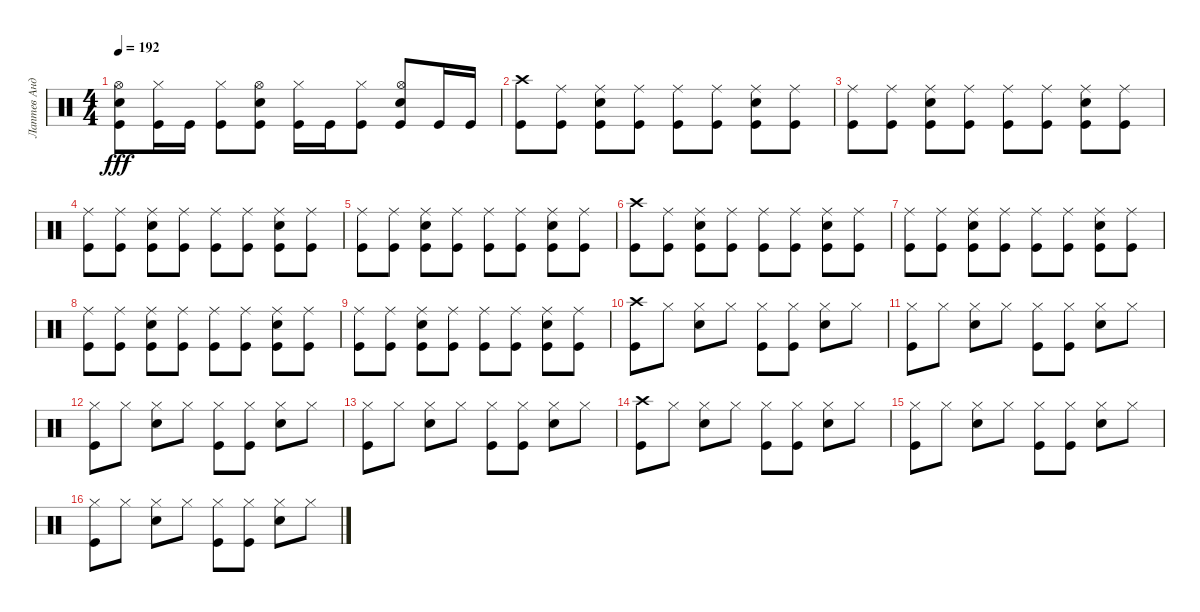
\track ("Лаптев Андрей" "Лаптев Анд") {instrument percussion}
\staff {score}
\articulation defaults
\ts (4 4)
\tempo 192
\clef neutral
\ks c
("Kick (hit)" "Hi-Hat (open)" "Electric Snare (hit)").8{dy fff} ("Kick (hit)" "Hi-Hat (closed)").16 "Kick (hit)".16 ("Kick (hit)" "Hi-Hat (closed)").8 ("Kick (hit)" "Hi-Hat (open)" "Electric Snare (hit)").8 ("Hi-Hat (closed)" "Kick (hit)").16 "Kick (hit)".16 ("Kick (hit)" "Hi-Hat (closed)").8 ("Kick (hit)" "Hi-Hat (open)" "Electric Snare (hit)").8 "Kick (hit)".16 "Kick (hit)".16 |
("Crash high (hit)" "Kick (hit)").8 ("Kick (hit)" "Ride (middle)").8 ("Kick (hit)" "Ride (middle)" "Electric Snare (hit)").8 ("Kick (hit)" "Ride (middle)").8 ("Ride (middle)" "Kick (hit)").8 ("Ride (middle)" "Kick (hit)").8 ("Electric Snare (hit)" "Kick (hit)" "Ride (middle)").8 ("Kick (hit)" "Ride (middle)").8 |
("Kick (hit)" "Ride (middle)").8 ("Kick (hit)" "Ride (middle)").8 ("Kick (hit)" "Ride (middle)" "Electric Snare (hit)").8 ("Kick (hit)" "Ride (middle)").8 ("Ride (middle)" "Kick (hit)").8 ("Kick (hit)" "Ride (middle)").8 ("Ride (middle)" "Kick (hit)" "Electric Snare (hit)").8 ("Ride (middle)" "Kick (hit)").8 |
("Kick (hit)" "Ride (middle)").8 ("Kick (hit)" "Ride (middle)").8 ("Electric Snare (hit)" "Kick (hit)" "Ride (middle)").8 ("Ride (middle)" "Kick (hit)").8 ("Ride (middle)" "Kick (hit)").8 ("Kick (hit)" "Ride (middle)").8 ("Electric Snare (hit)" "Ride (middle)" "Kick (hit)").8 ("Ride (middle)" "Kick (hit)").8 |
("Kick (hit)" "Ride (middle)").8 ("Kick (hit)" "Ride (middle)").8 ("Electric Snare (hit)" "Kick (hit)" "Ride (middle)").8 ("Kick (hit)" "Ride (middle)").8 ("Kick (hit)" "Ride (middle)").8 ("Ride (middle)" "Kick (hit)").8 ("Electric Snare (hit)" "Ride (middle)" "Kick (hit)").8 ("Kick (hit)" "Ride (middle)").8 |
("Kick (hit)" "Crash high (hit)").8 ("Kick (hit)" "Ride (middle)").8 ("Kick (hit)" "Ride (middle)" "Electric Snare (hit)").8 ("Ride (middle)" "Kick (hit)").8 ("Kick (hit)" "Ride (middle)").8 ("Kick (hit)" "Ride (middle)").8 ("Kick (hit)" "Ride (middle)" "Electric Snare (hit)").8 ("Kick (hit)" "Ride (middle)").8 |
("Kick (hit)" "Ride (middle)").8 ("Kick (hit)" "Ride (middle)").8 ("Ride (middle)" "Electric Snare (hit)" "Kick (hit)").8 ("Kick (hit)" "Ride (middle)").8 ("Ride (middle)" "Kick (hit)").8 ("Kick (hit)" "Ride (middle)").8 ("Ride (middle)" "Electric Snare (hit)" "Kick (hit)").8 ("Ride (middle)" "Kick (hit)").8 |
("Ride (middle)" "Kick (hit)").8 ("Ride (middle)" "Kick (hit)").8 ("Kick (hit)" "Electric Snare (hit)" "Ride (middle)").8 ("Ride (middle)" "Kick (hit)").8 ("Ride (middle)" "Kick (hit)").8 ("Kick (hit)" "Ride (middle)").8 ("Electric Snare (hit)" "Ride (middle)" "Kick (hit)").8 ("Kick (hit)" "Ride (middle)").8 |
("Ride (middle)" "Kick (hit)").8 ("Ride (middle)" "Kick (hit)").8 ("Kick (hit)" "Electric Snare (hit)" "Ride (middle)").8 ("Ride (middle)" "Kick (hit)").8 ("Ride (middle)" "Kick (hit)").8 ("Ride (middle)" "Kick (hit)").8 ("Kick (hit)" "Electric Snare (hit)" "Ride (middle)").8 ("Ride (middle)" "Kick (hit)").8 |
("Kick (hit)" "Crash high (hit)").8 "Hi-Hat (closed)".8 ("Electric Snare (hit)" "Hi-Hat (closed)").8 "Hi-Hat (closed)".8 ("Hi-Hat (closed)" "Kick (hit)").8 ("Hi-Hat (closed)" "Kick (hit)").8 ("Hi-Hat (closed)" "Electric Snare (hit)").8 "Hi-Hat (closed)".8 |
("Kick (hit)" "Hi-Hat (closed)").8 "Hi-Hat (closed)".8 ("Electric Snare (hit)" "Hi-Hat (closed)").8 "Hi-Hat (closed)".8 ("Hi-Hat (closed)" "Kick (hit)").8 ("Kick (hit)" "Hi-Hat (closed)").8 ("Hi-Hat (closed)" "Electric Snare (hit)").8 "Hi-Hat (closed)".8 |
("Kick (hit)" "Hi-Hat (closed)").8 "Hi-Hat (closed)".8 ("Hi-Hat (closed)" "Electric Snare (hit)").8 "Hi-Hat (closed)".8 ("Hi-Hat (closed)" "Kick (hit)").8 ("Kick (hit)" "Hi-Hat (closed)").8 ("Hi-Hat (closed)" "Electric Snare (hit)").8 "Hi-Hat (closed)".8 |
("Kick (hit)" "Hi-Hat (closed)").8 "Hi-Hat (closed)".8 ("Electric Snare (hit)" "Hi-Hat (closed)").8 "Hi-Hat (closed)".8 ("Kick (hit)" "Hi-Hat (closed)").8 ("Hi-Hat (closed)" "Kick (hit)").8 ("Hi-Hat (closed)" "Electric Snare (hit)").8 "Hi-Hat (closed)".8 |
("Crash high (hit)" "Kick (hit)").8 "Hi-Hat (closed)".8 ("Electric Snare (hit)" "Hi-Hat (closed)").8 "Hi-Hat (closed)".8 ("Hi-Hat (closed)" "Kick (hit)").8 ("Hi-Hat (closed)" "Kick (hit)").8 ("Hi-Hat (closed)" "Electric Snare (hit)").8 "Hi-Hat (closed)".8 |
("Kick (hit)" "Hi-Hat (closed)").8 "Hi-Hat (closed)".8 ("Electric Snare (hit)" "Hi-Hat (closed)").8 "Hi-Hat (closed)".8 ("Kick (hit)" "Hi-Hat (closed)").8 ("Hi-Hat (closed)" "Kick (hit)").8 ("Hi-Hat (closed)" "Electric Snare (hit)").8 "Hi-Hat (closed)".8 |
("Kick (hit)" "Hi-Hat (closed)").8 "Hi-Hat (closed)".8 ("Hi-Hat (closed)" "Electric Snare (hit)").8 "Hi-Hat (closed)".8 ("Hi-Hat (closed)" "Kick (hit)").8 ("Kick (hit)" "Hi-Hat (closed)").8 ("Electric Snare (hit)" "Hi-Hat (closed)").8 "Hi-Hat (closed)".8
